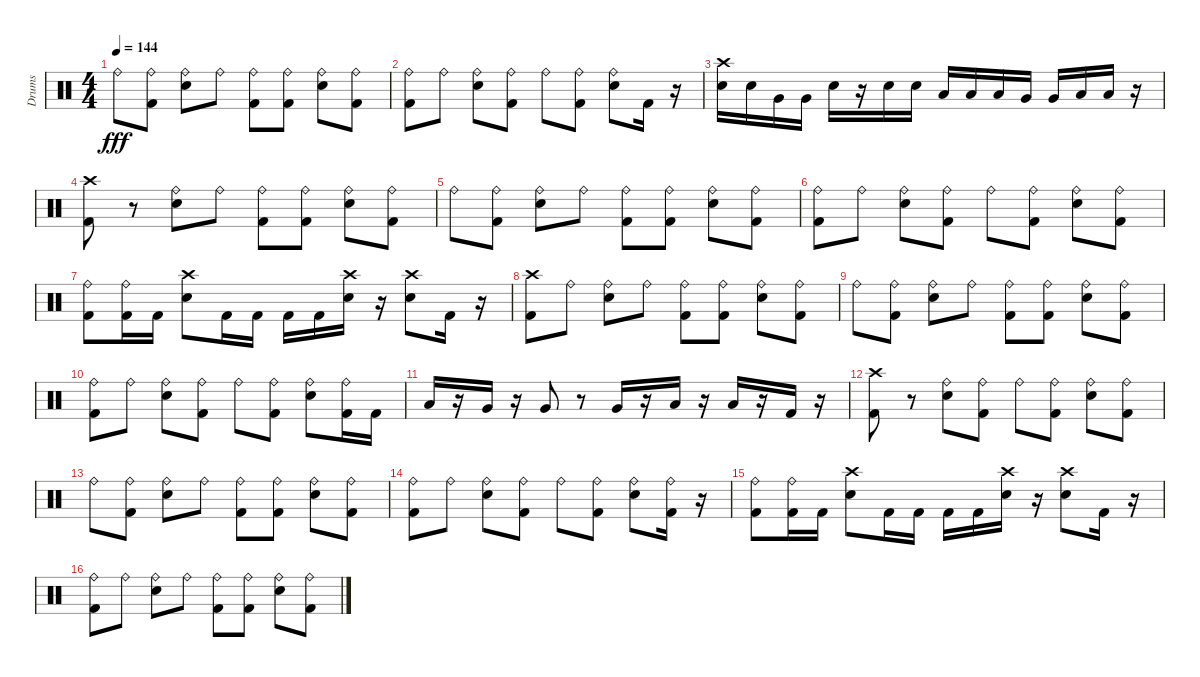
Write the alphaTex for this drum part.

\track ("Drums" "Drums") {instrument percussion}
\staff {score}
\articulation defaults
\ts (4 4)
\tempo 144
\clef neutral
\ks c "Ride (bell)".8{dy fff}
("Ride (bell)" "Kick (hit) 2").8 ("Ride (bell)" "Snare (hit) 2").8 "Ride (bell)".8 ("Ride (bell)" "Kick (hit) 2").8 ("Ride (bell)" "Kick (hit) 2").8 ("Ride (bell)" "Snare (hit) 2").8 ("Ride (bell)" "Kick (hit) 2").8 |
("Kick (hit) 2" "Ride (bell)").8 "Ride (bell)".8 ("Snare (hit) 2" "Ride (bell)").8 ("Kick (hit) 2" "Ride (bell)").8 "Ride (bell)".8 ("Kick (hit) 2" "Ride (bell)").8 ("Snare (hit) 2" "Ride (bell)").8 "Kick (hit) 2".16 r.16 |
("Snare (hit) 2" "Crash high (hit)").16 "Snare (hit) 2".16 "Very Low Tom (hit)".16 "Very Low Tom (hit)".16 "Snare (hit) 2".16 r.16 "Snare (hit) 2".16 "Snare (hit) 2".16 "Low Tom (hit)".16 "Low Tom (hit)".16 "Low Tom (hit)".16 "Very Low Tom (hit)".16 "Very Low Tom (hit)".16 "Low Floor Tom (hit)".16 "Low Floor Tom (hit)".16 r.16 |
("Kick (hit) 2" "Crash high (hit)").8 r.8 ("Ride (bell)" "Snare (hit) 2").8 "Ride (bell)".8 ("Ride (bell)" "Kick (hit) 2").8 ("Ride (bell)" "Kick (hit) 2").8 ("Ride (bell)" "Snare (hit) 2").8 ("Ride (bell)" "Kick (hit) 2").8 |
"Ride (bell)".8 ("Ride (bell)" "Kick (hit) 2").8 ("Ride (bell)" "Snare (hit) 2").8 "Ride (bell)".8 ("Ride (bell)" "Kick (hit) 2").8 ("Ride (bell)" "Kick (hit) 2").8 ("Ride (bell)" "Snare (hit) 2").8 ("Ride (bell)" "Kick (hit) 2").8 |
("Ride (bell)" "Kick (hit) 2").8 "Ride (bell)".8 ("Ride (bell)" "Snare (hit) 2").8 ("Ride (bell)" "Kick (hit) 2").8 "Ride (bell)".8 ("Ride (bell)" "Kick (hit) 2").8 ("Ride (bell)" "Snare (hit) 2").8 ("Ride (bell)" "Kick (hit) 2").8 |
("Ride (bell)" "Kick (hit) 2").8 ("Ride (bell)" "Kick (hit) 2").16 "Kick (hit) 2".16 ("Crash high (hit)" "Snare (hit) 2").8 "Kick (hit) 2".16 "Kick (hit) 2".16 "Kick (hit) 2".16 "Kick (hit) 2".16 ("Crash high (hit)" "Snare (hit) 2").16 r.16 ("Crash high (hit)" "Snare (hit) 2").8 "Kick (hit) 2".16 r.16 |
("Kick (hit) 2" "Crash high (hit)").8 "Ride (bell)".8 ("Ride (bell)" "Snare (hit) 2").8 "Ride (bell)".8 ("Ride (bell)" "Kick (hit) 2").8 ("Ride (bell)" "Kick (hit) 2").8 ("Ride (bell)" "Snare (hit) 2").8 ("Ride (bell)" "Kick (hit) 2").8 |
"Ride (bell)".8 ("Ride (bell)" "Kick (hit) 2").8 ("Ride (bell)" "Snare (hit) 2").8 "Ride (bell)".8 ("Ride (bell)" "Kick (hit) 2").8 ("Ride (bell)" "Kick (hit) 2").8 ("Ride (bell)" "Snare (hit) 2").8 ("Ride (bell)" "Kick (hit) 2").8 |
("Kick (hit) 2" "Ride (bell)").8 "Ride (bell)".8 ("Snare (hit) 2" "Ride (bell)").8 ("Kick (hit) 2" "Ride (bell)").8 "Ride (bell)".8 ("Kick (hit) 2" "Ride (bell)").8 ("Snare (hit) 2" "Ride (bell)").8 ("Kick (hit) 2" "Ride (bell)").16 "Kick (hit) 2".16 |
"Low Tom (hit)".16 r.16 "Very Low Tom (hit)".16 r.16 "Very Low Tom (hit)".8 r.8 "Very Low Tom (hit)".16 r.16 "Low Floor Tom (hit)".16 r.16 "Low Floor Tom (hit)".16 r.16 "Kick (hit) 2".16 r.16 |
("Kick (hit) 2" "Crash high (hit)").8 r.8 ("Ride (bell)" "Snare (hit) 2").8 ("Ride (bell)" "Kick (hit) 2").8 "Ride (bell)".8 ("Ride (bell)" "Kick (hit) 2").8 ("Ride (bell)" "Snare (hit) 2").8 ("Ride (bell)" "Kick (hit) 2").8 |
"Ride (bell)".8 ("Ride (bell)" "Kick (hit) 2").8 ("Ride (bell)" "Snare (hit) 2").8 "Ride (bell)".8 ("Ride (bell)" "Kick (hit) 2").8 ("Ride (bell)" "Kick (hit) 2").8 ("Ride (bell)" "Snare (hit) 2").8 ("Ride (bell)" "Kick (hit) 2").8 |
("Ride (bell)" "Kick (hit) 2").8 "Ride (bell)".8 ("Ride (bell)" "Snare (hit) 2").8 ("Ride (bell)" "Kick (hit) 2").8 "Ride (bell)".8 ("Ride (bell)" "Kick (hit) 2").8 ("Ride (bell)" "Snare (hit) 2").8 ("Kick (hit) 2" "Ride (bell)").16 r.16 |
("Kick (hit) 2" "Ride (bell)").8 ("Ride (bell)" "Kick (hit) 2").16 "Kick (hit) 2".16 ("Crash high (hit)" "Snare (hit) 2").8 "Kick (hit) 2".16 "Kick (hit) 2".16 "Kick (hit) 2".16 "Kick (hit) 2".16 ("Crash high (hit)" "Snare (hit) 2").16 r.16 ("Crash high (hit)" "Snare (hit) 2").8 "Kick (hit) 2".16 r.16 |
("Ride (bell)" "Kick (hit) 2").8 "Ride (bell)".8 ("Ride (bell)" "Snare (hit) 2").8 "Ride (bell)".8 ("Ride (bell)" "Kick (hit) 2").8 ("Ride (bell)" "Kick (hit) 2").8 ("Ride (bell)" "Snare (hit) 2").8 ("Ride (bell)" "Kick (hit) 2").8
